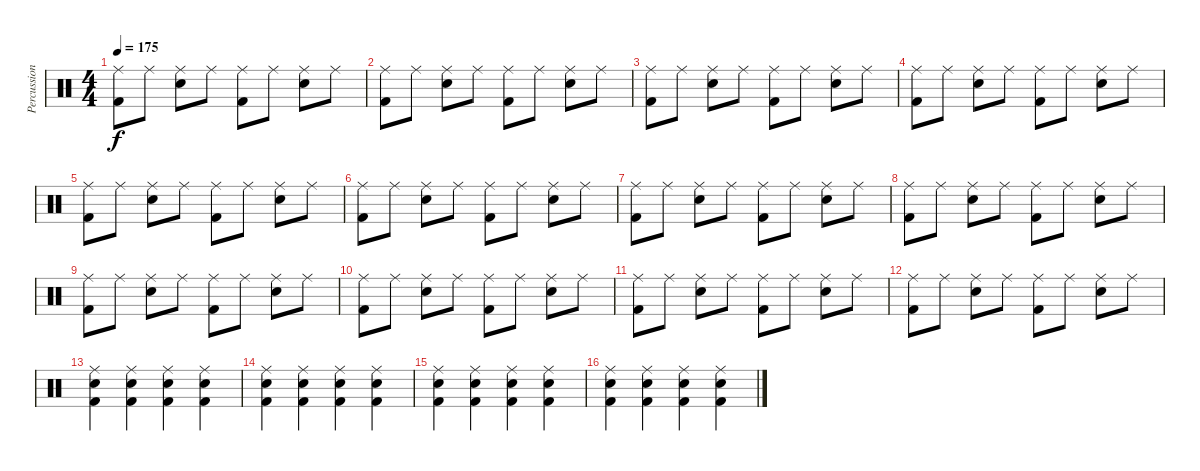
\track ("Percussions" "Percussion") {instrument percussion}
\staff {score}
\articulation defaults
\ts (4 4)
\tempo 175
\clef neutral
\ks c
("Ride (middle)" "Kick (hit) 2").8{dy f} "Ride (middle)".8 ("Ride (middle)" "Snare (hit) 2").8 "Ride (middle)".8 ("Ride (middle)" "Kick (hit) 2").8 "Ride (middle)".8 ("Ride (middle)" "Snare (hit) 2").8 "Ride (middle)".8 |
("Ride (middle)" "Kick (hit) 2").8 "Ride (middle)".8 ("Ride (middle)" "Snare (hit) 2").8 "Ride (middle)".8 ("Ride (middle)" "Kick (hit) 2").8 "Ride (middle)".8 ("Ride (middle)" "Snare (hit) 2").8 "Ride (middle)".8 |
("Ride (middle)" "Kick (hit) 2").8 "Ride (middle)".8 ("Ride (middle)" "Snare (hit) 2").8 "Ride (middle)".8 ("Ride (middle)" "Kick (hit) 2").8 "Ride (middle)".8 ("Ride (middle)" "Snare (hit) 2").8 "Ride (middle)".8 |
("Ride (middle)" "Kick (hit) 2").8 "Ride (middle)".8 ("Ride (middle)" "Snare (hit) 2").8 "Ride (middle)".8 ("Ride (middle)" "Kick (hit) 2").8 "Ride (middle)".8 ("Ride (middle)" "Snare (hit) 2").8 "Ride (middle)".8 |
("Ride (middle)" "Kick (hit) 2").8 "Ride (middle)".8 ("Ride (middle)" "Snare (hit) 2").8 "Ride (middle)".8 ("Ride (middle)" "Kick (hit) 2").8 "Ride (middle)".8 ("Ride (middle)" "Snare (hit) 2").8 "Ride (middle)".8 |
("Ride (middle)" "Kick (hit) 2").8 "Ride (middle)".8 ("Ride (middle)" "Snare (hit) 2").8 "Ride (middle)".8 ("Ride (middle)" "Kick (hit) 2").8 "Ride (middle)".8 ("Ride (middle)" "Snare (hit) 2").8 "Ride (middle)".8 |
("Ride (middle)" "Kick (hit) 2").8 "Ride (middle)".8 ("Ride (middle)" "Snare (hit) 2").8 "Ride (middle)".8 ("Ride (middle)" "Kick (hit) 2").8 "Ride (middle)".8 ("Ride (middle)" "Snare (hit) 2").8 "Ride (middle)".8 |
("Ride (middle)" "Kick (hit) 2").8 "Ride (middle)".8 ("Ride (middle)" "Snare (hit) 2").8 "Ride (middle)".8 ("Ride (middle)" "Kick (hit) 2").8 "Ride (middle)".8 ("Ride (middle)" "Snare (hit) 2").8 "Ride (middle)".8 |
("Ride (middle)" "Kick (hit) 2").8 "Ride (middle)".8 ("Ride (middle)" "Snare (hit) 2").8 "Ride (middle)".8 ("Ride (middle)" "Kick (hit) 2").8 "Ride (middle)".8 ("Ride (middle)" "Snare (hit) 2").8 "Ride (middle)".8 |
("Ride (middle)" "Kick (hit) 2").8 "Ride (middle)".8 ("Ride (middle)" "Snare (hit) 2").8 "Ride (middle)".8 ("Ride (middle)" "Kick (hit) 2").8 "Ride (middle)".8 ("Ride (middle)" "Snare (hit) 2").8 "Ride (middle)".8 |
("Ride (middle)" "Kick (hit) 2").8 "Ride (middle)".8 ("Ride (middle)" "Snare (hit) 2").8 "Ride (middle)".8 ("Ride (middle)" "Kick (hit) 2").8 "Ride (middle)".8 ("Ride (middle)" "Snare (hit) 2").8 "Ride (middle)".8 |
("Ride (middle)" "Kick (hit) 2").8 "Ride (middle)".8 ("Ride (middle)" "Snare (hit) 2").8 "Ride (middle)".8 ("Ride (middle)" "Kick (hit) 2").8 "Ride (middle)".8 ("Ride (middle)" "Snare (hit) 2").8 "Ride (middle)".8 |
("Ride (middle)" "Snare (hit) 2" "Kick (hit) 2").4 ("Ride (middle)" "Snare (hit) 2" "Kick (hit) 2").4 ("Ride (middle)" "Snare (hit) 2" "Kick (hit) 2").4 ("Ride (middle)" "Snare (hit) 2" "Kick (hit) 2").4 |
("Ride (middle)" "Snare (hit) 2" "Kick (hit) 2").4 ("Ride (middle)" "Snare (hit) 2" "Kick (hit) 2").4 ("Ride (middle)" "Snare (hit) 2" "Kick (hit) 2").4 ("Ride (middle)" "Snare (hit) 2" "Kick (hit) 2").4 |
("Ride (middle)" "Snare (hit) 2" "Kick (hit) 2").4 ("Ride (middle)" "Snare (hit) 2" "Kick (hit) 2").4 ("Ride (middle)" "Snare (hit) 2" "Kick (hit) 2").4 ("Ride (middle)" "Snare (hit) 2" "Kick (hit) 2").4 |
("Ride (middle)" "Snare (hit) 2" "Kick (hit) 2").4 ("Ride (middle)" "Snare (hit) 2" "Kick (hit) 2").4 ("Ride (middle)" "Snare (hit) 2" "Kick (hit) 2").4 ("Ride (middle)" "Snare (hit) 2" "Kick (hit) 2").4
